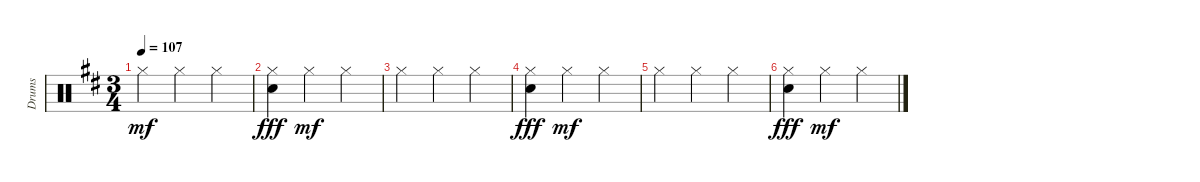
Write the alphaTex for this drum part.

\track ("Drums" "Drums") {instrument percussion}
\staff {score}
\articulation defaults
\ts (3 4)
\tempo 107
\clef neutral
\ks d "Hi-Hat (closed)".4{dy mf} "Hi-Hat (closed)".4 "Hi-Hat (closed)".4
|
("Hi-Hat (closed)" "Electric Snare (hit)").4{dy fff} "Hi-Hat (closed)".4{dy mf} "Hi-Hat (closed)".4 |
"Hi-Hat (closed)".4{volume 0} "Hi-Hat (closed)".4 "Hi-Hat (closed)".4 |
("Hi-Hat (closed)" "Electric Snare (hit)").4{dy fff} "Hi-Hat (closed)".4{dy mf} "Hi-Hat (closed)".4 |
"Hi-Hat (closed)".4 "Hi-Hat (closed)".4 "Hi-Hat (closed)".4 |
("Hi-Hat (closed)" "Electric Snare (hit)").4{dy fff} "Hi-Hat (closed)".4{dy mf} "Hi-Hat (closed)".4
